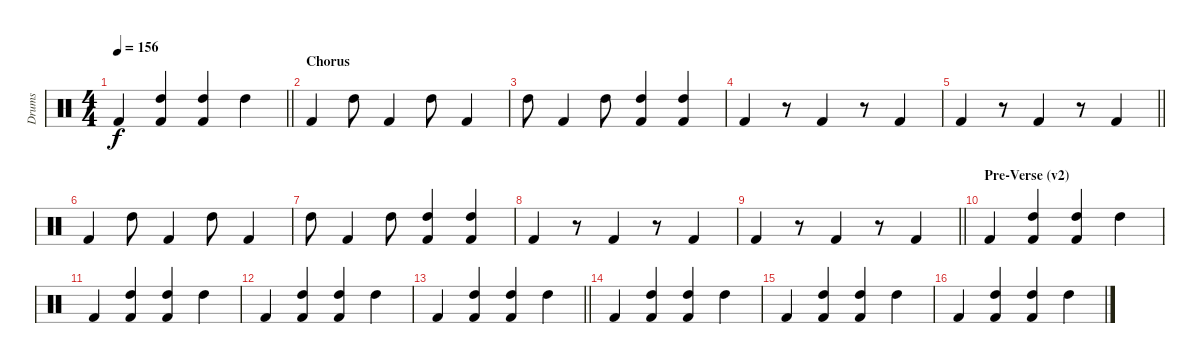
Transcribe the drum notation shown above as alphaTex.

\track ("Drums" "Drums") {instrument percussion}
\staff
\articulation defaults
\ts (4 4)
\tempo 156
\clef neutral
\barLineRight lightlight
\ks c "Kick (hit) 2".4{dy f}
("High Tom (hit)" "Kick (hit) 2").4 ("High Tom (hit)" "Kick (hit) 2").4 "High Tom (hit)".4 |
\section ("" "Chorus")
"Kick (hit) 2".4 "High Tom (hit)".8 "Kick (hit) 2".4 "High Tom (hit)".8 "Kick (hit) 2".4 |
"High Tom (hit)".8 "Kick (hit) 2".4 "High Tom (hit)".8 ("High Tom (hit)" "Kick (hit) 2").4 ("High Tom (hit)" "Kick (hit) 2").4 |
"Kick (hit) 2".4 r.8 "Kick (hit) 2".4 r.8 "Kick (hit) 2".4 |
\barLineRight lightlight "Kick (hit) 2".4
r.8 "Kick (hit) 2".4 r.8 "Kick (hit) 2".4 |
"Kick (hit) 2".4 "High Tom (hit)".8 "Kick (hit) 2".4 "High Tom (hit)".8 "Kick (hit) 2".4 |
"High Tom (hit)".8 "Kick (hit) 2".4 "High Tom (hit)".8 ("High Tom (hit)" "Kick (hit) 2").4 ("High Tom (hit)" "Kick (hit) 2").4 |
"Kick (hit) 2".4 r.8 "Kick (hit) 2".4 r.8 "Kick (hit) 2".4 |
\barLineRight lightlight "Kick (hit) 2".4
r.8 "Kick (hit) 2".4 r.8 "Kick (hit) 2".4 |
\section ("" "Pre-Verse (v2)")
"Kick (hit) 2".4 ("High Tom (hit)" "Kick (hit) 2").4 ("High Tom (hit)" "Kick (hit) 2").4 "High Tom (hit)".4 |
"Kick (hit) 2".4 ("High Tom (hit)" "Kick (hit) 2").4 ("High Tom (hit)" "Kick (hit) 2").4 "High Tom (hit)".4 |
"Kick (hit) 2".4 ("High Tom (hit)" "Kick (hit) 2").4 ("High Tom (hit)" "Kick (hit) 2").4 "High Tom (hit)".4 |
\barLineRight lightlight "Kick (hit) 2".4
("High Tom (hit)" "Kick (hit) 2").4 ("High Tom (hit)" "Kick (hit) 2").4 "High Tom (hit)".4 |
"Kick (hit) 2".4 ("High Tom (hit)" "Kick (hit) 2").4 ("High Tom (hit)" "Kick (hit) 2").4 "High Tom (hit)".4 |
"Kick (hit) 2".4 ("High Tom (hit)" "Kick (hit) 2").4 ("High Tom (hit)" "Kick (hit) 2").4 "High Tom (hit)".4 |
"Kick (hit) 2".4 ("High Tom (hit)" "Kick (hit) 2").4 ("High Tom (hit)" "Kick (hit) 2").4 "High Tom (hit)".4
